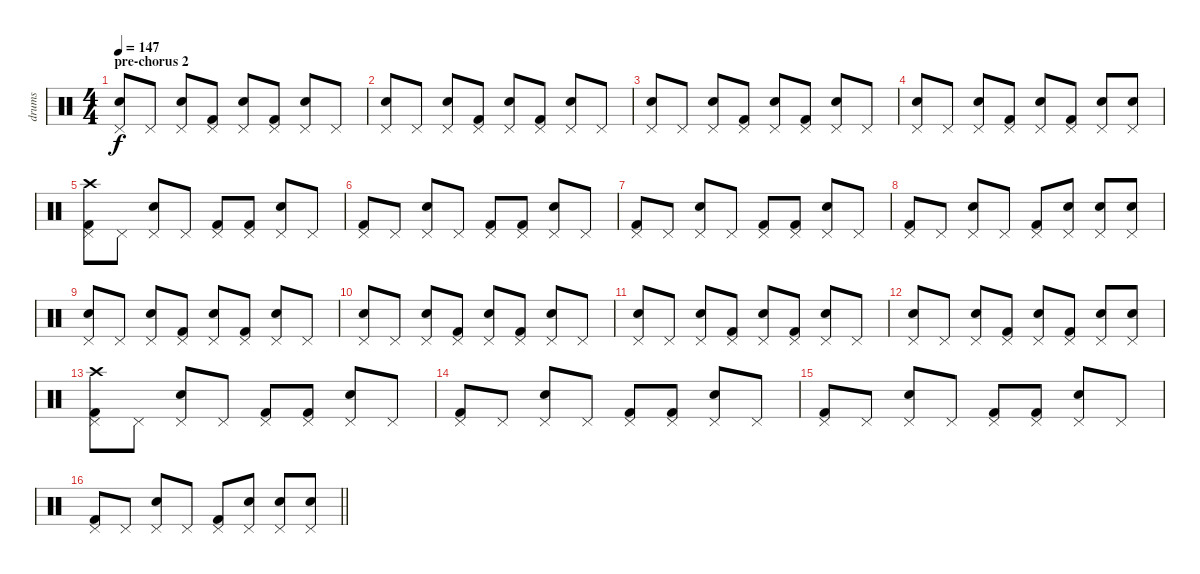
\track ("drums" "drums") {instrument percussion}
\staff {score}
\articulation defaults
\ts (4 4)
\section ("" "pre-chorus 2")
\tempo 147
\clef neutral
\ks c
("Snare (hit) 2" "Pedal Hi-Hat (hit)").8{dy f} "Pedal Hi-Hat (hit)".8 ("Snare (hit) 2" "Pedal Hi-Hat (hit)").8 ("Kick (hit) 2" "Pedal Hi-Hat (hit)").8 ("Snare (hit) 2" "Pedal Hi-Hat (hit)").8 ("Kick (hit) 2" "Pedal Hi-Hat (hit)").8 ("Snare (hit) 2" "Pedal Hi-Hat (hit)").8 "Pedal Hi-Hat (hit)".8 |
("Snare (hit) 2" "Pedal Hi-Hat (hit)").8 "Pedal Hi-Hat (hit)".8 ("Snare (hit) 2" "Pedal Hi-Hat (hit)").8 ("Kick (hit) 2" "Pedal Hi-Hat (hit)").8 ("Snare (hit) 2" "Pedal Hi-Hat (hit)").8 ("Kick (hit) 2" "Pedal Hi-Hat (hit)").8 ("Snare (hit) 2" "Pedal Hi-Hat (hit)").8 "Pedal Hi-Hat (hit)".8 |
("Snare (hit) 2" "Pedal Hi-Hat (hit)").8 "Pedal Hi-Hat (hit)".8 ("Snare (hit) 2" "Pedal Hi-Hat (hit)").8 ("Kick (hit) 2" "Pedal Hi-Hat (hit)").8 ("Snare (hit) 2" "Pedal Hi-Hat (hit)").8 ("Kick (hit) 2" "Pedal Hi-Hat (hit)").8 ("Snare (hit) 2" "Pedal Hi-Hat (hit)").8 "Pedal Hi-Hat (hit)".8 |
("Snare (hit) 2" "Pedal Hi-Hat (hit)").8 "Pedal Hi-Hat (hit)".8 ("Snare (hit) 2" "Pedal Hi-Hat (hit)").8 ("Kick (hit) 2" "Pedal Hi-Hat (hit)").8 ("Snare (hit) 2" "Pedal Hi-Hat (hit)").8 ("Kick (hit) 2" "Pedal Hi-Hat (hit)").8 ("Snare (hit) 2" "Pedal Hi-Hat (hit)").8 ("Snare (hit) 2" "Pedal Hi-Hat (hit)").8 |
("Kick (hit) 2" "Crash high (hit)" "Pedal Hi-Hat (hit)").8 "Pedal Hi-Hat (hit)".8 ("Snare (hit) 2" "Pedal Hi-Hat (hit)").8 "Pedal Hi-Hat (hit)".8 ("Kick (hit) 2" "Pedal Hi-Hat (hit)").8 ("Kick (hit) 2" "Pedal Hi-Hat (hit)").8 ("Snare (hit) 2" "Pedal Hi-Hat (hit)").8 "Pedal Hi-Hat (hit)".8 |
("Kick (hit) 2" "Pedal Hi-Hat (hit)").8 "Pedal Hi-Hat (hit)".8 ("Snare (hit) 2" "Pedal Hi-Hat (hit)").8 "Pedal Hi-Hat (hit)".8 ("Kick (hit) 2" "Pedal Hi-Hat (hit)").8 ("Kick (hit) 2" "Pedal Hi-Hat (hit)").8 ("Snare (hit) 2" "Pedal Hi-Hat (hit)").8 "Pedal Hi-Hat (hit)".8 |
("Kick (hit) 2" "Pedal Hi-Hat (hit)").8 "Pedal Hi-Hat (hit)".8 ("Snare (hit) 2" "Pedal Hi-Hat (hit)").8 "Pedal Hi-Hat (hit)".8 ("Kick (hit) 2" "Pedal Hi-Hat (hit)").8 ("Kick (hit) 2" "Pedal Hi-Hat (hit)").8 ("Snare (hit) 2" "Pedal Hi-Hat (hit)").8 "Pedal Hi-Hat (hit)".8 |
("Kick (hit) 2" "Pedal Hi-Hat (hit)").8 "Pedal Hi-Hat (hit)".8 ("Snare (hit) 2" "Pedal Hi-Hat (hit)").8 "Pedal Hi-Hat (hit)".8 ("Kick (hit) 2" "Pedal Hi-Hat (hit)").8 ("Snare (hit) 2" "Pedal Hi-Hat (hit)").8 ("Snare (hit) 2" "Pedal Hi-Hat (hit)").8 ("Snare (hit) 2" "Pedal Hi-Hat (hit)").8 |
("Snare (hit) 2" "Pedal Hi-Hat (hit)").8 "Pedal Hi-Hat (hit)".8 ("Snare (hit) 2" "Pedal Hi-Hat (hit)").8 ("Kick (hit) 2" "Pedal Hi-Hat (hit)").8 ("Snare (hit) 2" "Pedal Hi-Hat (hit)").8 ("Kick (hit) 2" "Pedal Hi-Hat (hit)").8 ("Snare (hit) 2" "Pedal Hi-Hat (hit)").8 "Pedal Hi-Hat (hit)".8 |
("Snare (hit) 2" "Pedal Hi-Hat (hit)").8 "Pedal Hi-Hat (hit)".8 ("Snare (hit) 2" "Pedal Hi-Hat (hit)").8 ("Kick (hit) 2" "Pedal Hi-Hat (hit)").8 ("Snare (hit) 2" "Pedal Hi-Hat (hit)").8 ("Kick (hit) 2" "Pedal Hi-Hat (hit)").8 ("Snare (hit) 2" "Pedal Hi-Hat (hit)").8 "Pedal Hi-Hat (hit)".8 |
("Snare (hit) 2" "Pedal Hi-Hat (hit)").8 "Pedal Hi-Hat (hit)".8 ("Snare (hit) 2" "Pedal Hi-Hat (hit)").8 ("Kick (hit) 2" "Pedal Hi-Hat (hit)").8 ("Snare (hit) 2" "Pedal Hi-Hat (hit)").8 ("Kick (hit) 2" "Pedal Hi-Hat (hit)").8 ("Snare (hit) 2" "Pedal Hi-Hat (hit)").8 "Pedal Hi-Hat (hit)".8 |
("Snare (hit) 2" "Pedal Hi-Hat (hit)").8 "Pedal Hi-Hat (hit)".8 ("Snare (hit) 2" "Pedal Hi-Hat (hit)").8 ("Kick (hit) 2" "Pedal Hi-Hat (hit)").8 ("Snare (hit) 2" "Pedal Hi-Hat (hit)").8 ("Kick (hit) 2" "Pedal Hi-Hat (hit)").8 ("Snare (hit) 2" "Pedal Hi-Hat (hit)").8 ("Snare (hit) 2" "Pedal Hi-Hat (hit)").8 |
("Kick (hit) 2" "Crash high (hit)" "Pedal Hi-Hat (hit)").8 "Pedal Hi-Hat (hit)".8 ("Snare (hit) 2" "Pedal Hi-Hat (hit)").8 "Pedal Hi-Hat (hit)".8 ("Kick (hit) 2" "Pedal Hi-Hat (hit)").8 ("Kick (hit) 2" "Pedal Hi-Hat (hit)").8 ("Snare (hit) 2" "Pedal Hi-Hat (hit)").8 "Pedal Hi-Hat (hit)".8 |
("Kick (hit) 2" "Pedal Hi-Hat (hit)").8 "Pedal Hi-Hat (hit)".8 ("Snare (hit) 2" "Pedal Hi-Hat (hit)").8 "Pedal Hi-Hat (hit)".8 ("Kick (hit) 2" "Pedal Hi-Hat (hit)").8 ("Kick (hit) 2" "Pedal Hi-Hat (hit)").8 ("Snare (hit) 2" "Pedal Hi-Hat (hit)").8 "Pedal Hi-Hat (hit)".8 |
("Kick (hit) 2" "Pedal Hi-Hat (hit)").8 "Pedal Hi-Hat (hit)".8 ("Snare (hit) 2" "Pedal Hi-Hat (hit)").8 "Pedal Hi-Hat (hit)".8 ("Kick (hit) 2" "Pedal Hi-Hat (hit)").8 ("Kick (hit) 2" "Pedal Hi-Hat (hit)").8 ("Snare (hit) 2" "Pedal Hi-Hat (hit)").8 "Pedal Hi-Hat (hit)".8 |
\barLineRight lightlight
("Kick (hit) 2" "Pedal Hi-Hat (hit)").8 "Pedal Hi-Hat (hit)".8 ("Snare (hit) 2" "Pedal Hi-Hat (hit)").8 "Pedal Hi-Hat (hit)".8 ("Kick (hit) 2" "Pedal Hi-Hat (hit)").8 ("Snare (hit) 2" "Pedal Hi-Hat (hit)").8 ("Snare (hit) 2" "Pedal Hi-Hat (hit)").8 ("Snare (hit) 2" "Pedal Hi-Hat (hit)").8
